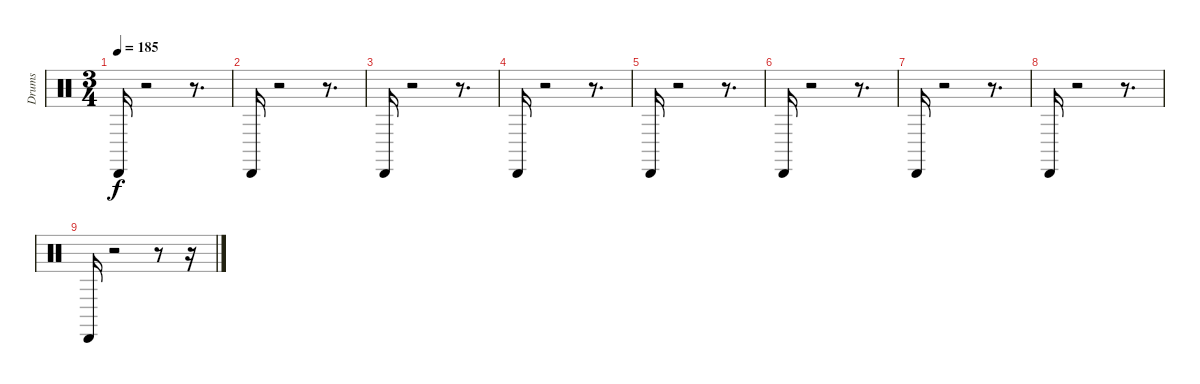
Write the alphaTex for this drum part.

\track ("Drums " "Drums ") {instrument percussion}
\staff {score}
\articulation defaults
\ts (3 4)
\tempo 185
\clef neutral
\ks c "Cabasa (hit)".16{dy f}
r.2 r.8{d} |
"Cabasa (hit)".16 r.2 r.8{d} |
"Cabasa (hit)".16 r.2 r.8{d} |
"Cabasa (hit)".16 r.2 r.8{d} |
"Cabasa (hit)".16 r.2 r.8{d} |
"Cabasa (hit)".16 r.2 r.8{d} |
"Cabasa (hit)".16 r.2 r.8{d} |
"Cabasa (hit)".16 r.2 r.8{d} |
"Cabasa (hit)".16 r.2 r.8 r.16
